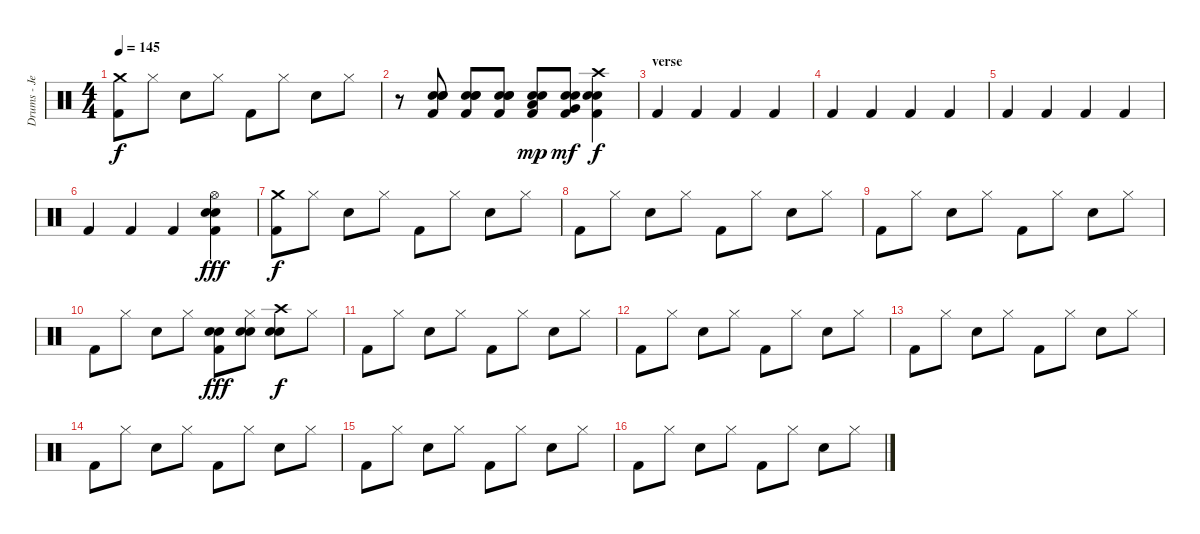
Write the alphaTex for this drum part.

\track ("Drums - Jeremiah Green" "Drums - Je") {instrument percussion}
\staff {score}
\articulation defaults
\ts (4 4)
\tempo 145
\clef neutral
\ks c
("Crash medium (hit)" "Kick (hit) 2").8{dy f} "Hi-Hat (closed)".8 "Electric Snare (hit)".8 "Hi-Hat (closed)".8 "Kick (hit) 2".8 "Hi-Hat (closed)".8 "Electric Snare (hit)".8 "Hi-Hat (closed)".8 |
r.8 ("Snare (hit) 2" "Electric Snare (hit)" "Electric Snare (hit)" "Kick (hit) 2").8 ("Snare (hit) 2" "Electric Snare (hit)" "Electric Snare (hit)" "Kick (hit) 2").8 ("Snare (hit) 2" "Electric Snare (hit)" "Electric Snare (hit)" "Kick (hit) 2").8 ("Snare (hit) 2" "Low Tom (hit)" "Electric Snare (hit)" "Kick (hit) 2").8{dy mp} ("Snare (hit) 2" "Very Low Tom (hit)" "Electric Snare (hit)" "Kick (hit) 2").8{dy mf} ("Crash high (hit)" "Snare (hit) 2" "Electric Snare (hit)" "Kick (hit) 2").4{dy f} |
\section ("" "verse")
"Kick (hit) 2".4 "Kick (hit) 2".4 "Kick (hit) 2".4 "Kick (hit) 2".4 |
"Kick (hit) 2".4 "Kick (hit) 2".4 "Kick (hit) 2".4 "Kick (hit) 2".4 |
"Kick (hit) 2".4 "Kick (hit) 2".4 "Kick (hit) 2".4 "Kick (hit) 2".4 |
"Kick (hit) 2".4 "Kick (hit) 2".4 "Kick (hit) 2".4 ("Hi-Hat (open)" "Snare (hit) 2" "Electric Snare (hit)" "Kick (hit) 2").4{dy fff} |
("Crash medium (hit)" "Kick (hit) 2").8{dy f} "Hi-Hat (closed)".8 "Electric Snare (hit)".8 "Hi-Hat (closed)".8 "Kick (hit) 2".8 "Hi-Hat (closed)".8 "Electric Snare (hit)".8 "Hi-Hat (closed)".8 |
"Kick (hit) 2".8 "Hi-Hat (closed)".8 "Electric Snare (hit)".8 "Hi-Hat (closed)".8 "Kick (hit) 2".8 "Hi-Hat (closed)".8 "Electric Snare (hit)".8 "Hi-Hat (closed)".8 |
"Kick (hit) 2".8 "Hi-Hat (closed)".8 "Electric Snare (hit)".8 "Hi-Hat (closed)".8 "Kick (hit) 2".8 "Hi-Hat (closed)".8 "Electric Snare (hit)".8 "Hi-Hat (closed)".8 |
"Kick (hit) 2".8 "Hi-Hat (closed)".8 "Electric Snare (hit)".8 "Hi-Hat (closed)".8 ("Snare (hit) 2" "Electric Snare (hit)" "Kick (hit) 2").8{dy fff} ("Hi-Hat (closed)" "Snare (hit) 2" "Electric Snare (hit)").8 ("Crash high (hit)" "Snare (hit) 2" "Electric Snare (hit)").8{dy f} "Hi-Hat (closed)".8 |
"Kick (hit) 2".8 "Hi-Hat (closed)".8 "Electric Snare (hit)".8 "Hi-Hat (closed)".8 "Kick (hit) 2".8 "Hi-Hat (closed)".8 "Electric Snare (hit)".8 "Hi-Hat (closed)".8 |
"Kick (hit) 2".8 "Hi-Hat (closed)".8 "Electric Snare (hit)".8 "Hi-Hat (closed)".8 "Kick (hit) 2".8 "Hi-Hat (closed)".8 "Electric Snare (hit)".8 "Hi-Hat (closed)".8 |
"Kick (hit) 2".8 "Hi-Hat (closed)".8 "Electric Snare (hit)".8 "Hi-Hat (closed)".8 "Kick (hit) 2".8 "Hi-Hat (closed)".8 "Electric Snare (hit)".8 "Hi-Hat (closed)".8 |
"Kick (hit) 2".8 "Hi-Hat (closed)".8 "Electric Snare (hit)".8 "Hi-Hat (closed)".8 "Kick (hit) 2".8 "Hi-Hat (closed)".8 "Electric Snare (hit)".8 "Hi-Hat (closed)".8 |
"Kick (hit) 2".8 "Hi-Hat (closed)".8 "Electric Snare (hit)".8 "Hi-Hat (closed)".8 "Kick (hit) 2".8 "Hi-Hat (closed)".8 "Electric Snare (hit)".8 "Hi-Hat (closed)".8 |
"Kick (hit) 2".8 "Hi-Hat (closed)".8 "Electric Snare (hit)".8 "Hi-Hat (closed)".8 "Kick (hit) 2".8 "Hi-Hat (closed)".8 "Electric Snare (hit)".8 "Hi-Hat (closed)".8
